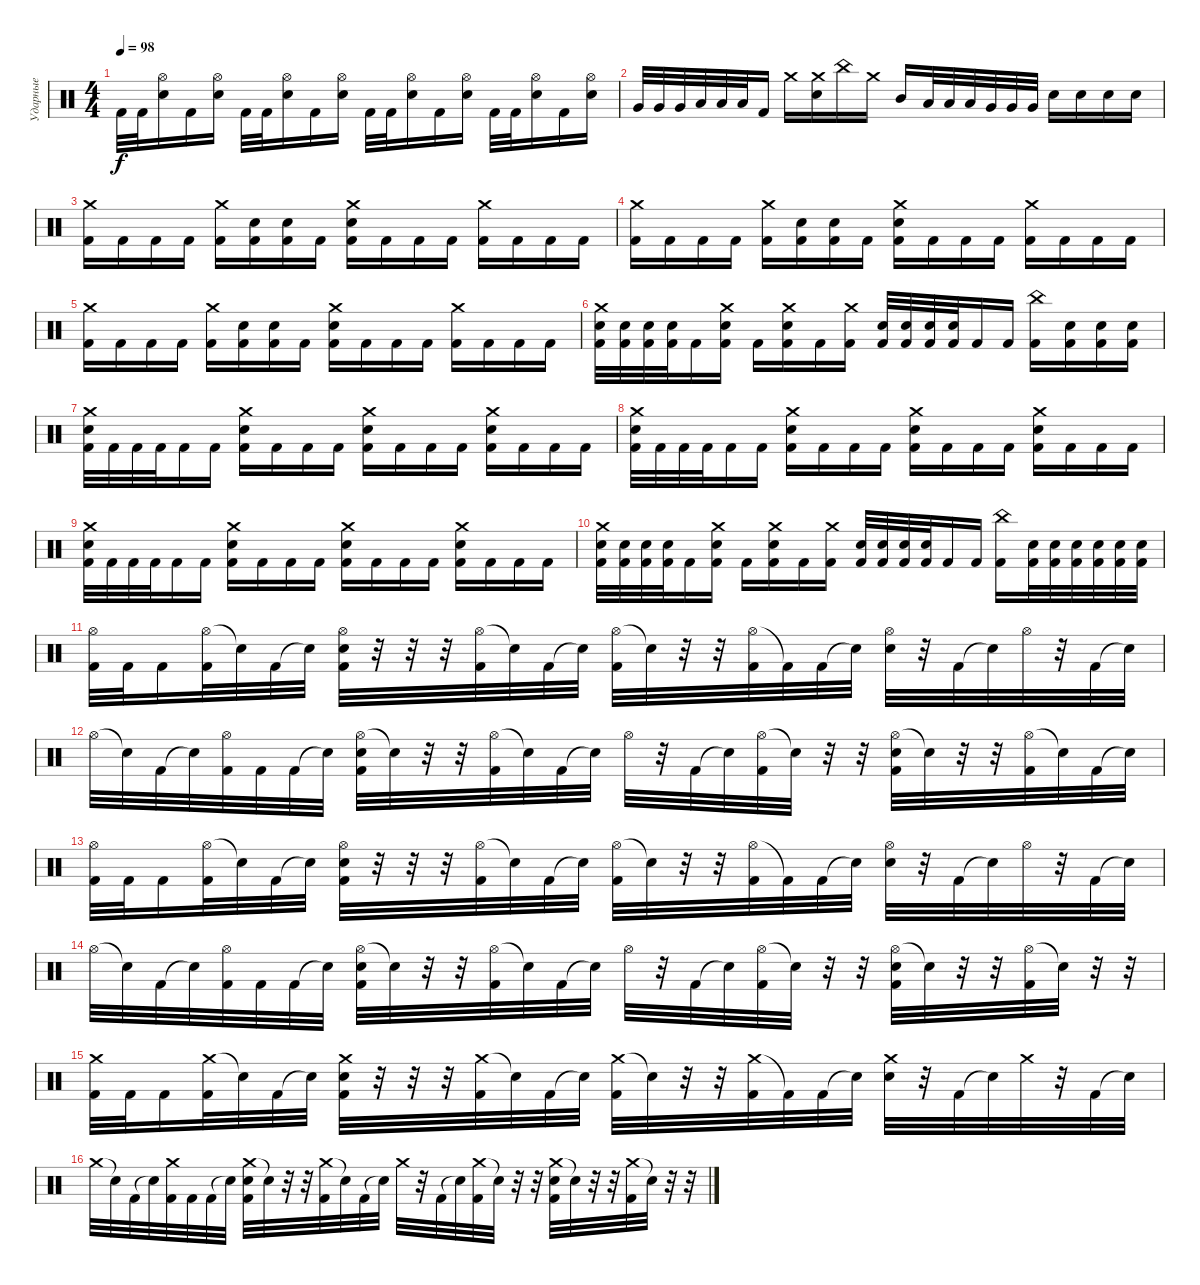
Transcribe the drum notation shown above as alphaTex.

\track ("Ударные" "Ударные") {instrument percussion}
\staff {score}
\articulation defaults
\ts (4 4)
\tempo 98
\clef neutral
\ks c "Kick (hit) 2".32{dy f} "Kick (hit) 2".32
("Hi-Hat (open)" "Electric Snare (hit)").16 "Kick (hit) 2".16 ("Hi-Hat (open)" "Electric Snare (hit)").16 "Kick (hit) 2".32 "Kick (hit) 2".32 ("Hi-Hat (open)" "Electric Snare (hit)").16 "Kick (hit) 2".16 ("Hi-Hat (open)" "Electric Snare (hit)").16 "Kick (hit) 2".32 "Kick (hit) 2".32 ("Hi-Hat (open)" "Electric Snare (hit)").16 "Kick (hit) 2".16 ("Hi-Hat (open)" "Electric Snare (hit)").16 "Kick (hit) 2".32 "Kick (hit) 2".32 ("Hi-Hat (open)" "Electric Snare (hit)").16 "Kick (hit) 2".16 ("Hi-Hat (open)" "Electric Snare (hit)").16 |
"Very Low Tom (hit)".32 "Very Low Tom (hit)".32 "Very Low Tom (hit)".32 "Low Tom (hit)".32 "Low Tom (hit)".32 "Low Tom (hit)".32 "Kick (hit) 2".16 "Crash medium (hit)".16 ("Crash medium (hit)" "Electric Snare (hit)").16 "China (hit)".16 "Crash medium (hit)".16 "Mid Tom (hit)".16 "Low Tom (hit)".32 "Low Tom (hit)".32 "Low Tom (hit)".32 "Very Low Tom (hit)".32 "Very Low Tom (hit)".32 "Very Low Tom (hit)".32 "Electric Snare (hit)".16 "Electric Snare (hit)".16 "Electric Snare (hit)".16 "Electric Snare (hit)".16 |
("Crash medium (hit)" "Kick (hit) 2").16 "Kick (hit) 2".16 "Kick (hit) 2".16 "Kick (hit) 2".16 ("Crash medium (hit)" "Kick (hit) 2").16 ("Electric Snare (hit)" "Kick (hit) 2").16 ("Electric Snare (hit)" "Kick (hit) 2").16 "Kick (hit) 2".16 ("Crash medium (hit)" "Electric Snare (hit)" "Kick (hit) 2").16 "Kick (hit) 2".16 "Kick (hit) 2".16 "Kick (hit) 2".16 ("Crash medium (hit)" "Kick (hit) 2").16 "Kick (hit) 2".16 "Kick (hit) 2".16 "Kick (hit) 2".16 |
("Crash medium (hit)" "Kick (hit) 2").16 "Kick (hit) 2".16 "Kick (hit) 2".16 "Kick (hit) 2".16 ("Crash medium (hit)" "Kick (hit) 2").16 ("Electric Snare (hit)" "Kick (hit) 2").16 ("Electric Snare (hit)" "Kick (hit) 2").16 "Kick (hit) 2".16 ("Crash medium (hit)" "Electric Snare (hit)" "Kick (hit) 2").16 "Kick (hit) 2".16 "Kick (hit) 2".16 "Kick (hit) 2".16 ("Crash medium (hit)" "Kick (hit) 2").16 "Kick (hit) 2".16 "Kick (hit) 2".16 "Kick (hit) 2".16 |
("Crash medium (hit)" "Kick (hit) 2").16 "Kick (hit) 2".16 "Kick (hit) 2".16 "Kick (hit) 2".16 ("Crash medium (hit)" "Kick (hit) 2").16 ("Electric Snare (hit)" "Kick (hit) 2").16 ("Electric Snare (hit)" "Kick (hit) 2").16 "Kick (hit) 2".16 ("Crash medium (hit)" "Electric Snare (hit)" "Kick (hit) 2").16 "Kick (hit) 2".16 "Kick (hit) 2".16 "Kick (hit) 2".16 ("Crash medium (hit)" "Kick (hit) 2").16 "Kick (hit) 2".16 "Kick (hit) 2".16 "Kick (hit) 2".16 |
("Crash medium (hit)" "Electric Snare (hit)" "Kick (hit) 2").32 ("Electric Snare (hit)" "Kick (hit) 2").32 ("Electric Snare (hit)" "Kick (hit) 2").32 ("Electric Snare (hit)" "Kick (hit) 2").32 "Kick (hit) 2".16 ("Crash medium (hit)" "Electric Snare (hit)" "Kick (hit) 2").16 "Kick (hit) 2".16 ("Crash medium (hit)" "Electric Snare (hit)" "Kick (hit) 2").16 "Kick (hit) 2".16 ("Crash medium (hit)" "Kick (hit) 2").16 ("Electric Snare (hit)" "Kick (hit) 2").32 ("Electric Snare (hit)" "Kick (hit) 2").32 ("Electric Snare (hit)" "Kick (hit) 2").32 ("Electric Snare (hit)" "Kick (hit) 2").32 "Kick (hit) 2".16 "Kick (hit) 2".16 ("China (hit)" "Kick (hit) 2").16 ("Electric Snare (hit)" "Kick (hit) 2").16 ("Electric Snare (hit)" "Kick (hit) 2").16 ("Electric Snare (hit)" "Kick (hit) 2").16 |
("Crash medium (hit)" "Electric Snare (hit)" "Kick (hit) 2").32 "Kick (hit) 2".32 "Kick (hit) 2".32 "Kick (hit) 2".32 "Kick (hit) 2".16 "Kick (hit) 2".16 ("Crash medium (hit)" "Electric Snare (hit)" "Kick (hit) 2").16 "Kick (hit) 2".16 "Kick (hit) 2".16 "Kick (hit) 2".16 ("Crash medium (hit)" "Electric Snare (hit)" "Kick (hit) 2").16 "Kick (hit) 2".16 "Kick (hit) 2".16 "Kick (hit) 2".16 ("Crash medium (hit)" "Electric Snare (hit)" "Kick (hit) 2").16 "Kick (hit) 2".16 "Kick (hit) 2".16 "Kick (hit) 2".16 |
("Crash medium (hit)" "Electric Snare (hit)" "Kick (hit) 2").32 "Kick (hit) 2".32 "Kick (hit) 2".32 "Kick (hit) 2".32 "Kick (hit) 2".16 "Kick (hit) 2".16 ("Crash medium (hit)" "Electric Snare (hit)" "Kick (hit) 2").16 "Kick (hit) 2".16 "Kick (hit) 2".16 "Kick (hit) 2".16 ("Crash medium (hit)" "Electric Snare (hit)" "Kick (hit) 2").16 "Kick (hit) 2".16 "Kick (hit) 2".16 "Kick (hit) 2".16 ("Crash medium (hit)" "Electric Snare (hit)" "Kick (hit) 2").16 "Kick (hit) 2".16 "Kick (hit) 2".16 "Kick (hit) 2".16 |
("Crash medium (hit)" "Electric Snare (hit)" "Kick (hit) 2").32 "Kick (hit) 2".32 "Kick (hit) 2".32 "Kick (hit) 2".32 "Kick (hit) 2".16 "Kick (hit) 2".16 ("Crash medium (hit)" "Electric Snare (hit)" "Kick (hit) 2").16 "Kick (hit) 2".16 "Kick (hit) 2".16 "Kick (hit) 2".16 ("Crash medium (hit)" "Electric Snare (hit)" "Kick (hit) 2").16 "Kick (hit) 2".16 "Kick (hit) 2".16 "Kick (hit) 2".16 ("Crash medium (hit)" "Electric Snare (hit)" "Kick (hit) 2").16 "Kick (hit) 2".16 "Kick (hit) 2".16 "Kick (hit) 2".16 |
("Crash medium (hit)" "Electric Snare (hit)" "Kick (hit) 2").32 ("Electric Snare (hit)" "Kick (hit) 2").32 ("Electric Snare (hit)" "Kick (hit) 2").32 ("Electric Snare (hit)" "Kick (hit) 2").32 "Kick (hit) 2".16 ("Crash medium (hit)" "Electric Snare (hit)" "Kick (hit) 2").16 "Kick (hit) 2".16 ("Crash medium (hit)" "Electric Snare (hit)" "Kick (hit) 2").16 "Kick (hit) 2".16 ("Crash medium (hit)" "Kick (hit) 2").16 ("Electric Snare (hit)" "Kick (hit) 2").32 ("Electric Snare (hit)" "Kick (hit) 2").32 ("Electric Snare (hit)" "Kick (hit) 2").32 ("Electric Snare (hit)" "Kick (hit) 2").32 "Kick (hit) 2".16 "Kick (hit) 2".16 ("China (hit)" "Kick (hit) 2").16 ("Electric Snare (hit)" "Kick (hit) 2").32 ("Electric Snare (hit)" "Kick (hit) 2").32 ("Electric Snare (hit)" "Kick (hit) 2").32 ("Electric Snare (hit)" "Kick (hit) 2").32 ("Electric Snare (hit)" "Kick (hit) 2").32 ("Electric Snare (hit)" "Kick (hit) 2").32 |
("Hi-Hat (open)" "Kick (hit) 2").32 "Kick (hit) 2".32 "Kick (hit) 2".16 ("Hi-Hat (open)" "Kick (hit) 2").32 "Snare (hit)"{t}.32 "Kick (hit) 2".32 "Snare (hit)"{t}.32 ("Hi-Hat (open)" "Electric Snare (hit)" "Kick (hit) 2").32 r.32 r.32 r.32 ("Hi-Hat (open)" "Kick (hit) 2").32 "Snare (hit)"{t}.32 "Kick (hit) 2".32 "Snare (hit)"{t}.32 ("Hi-Hat (open)" "Kick (hit) 2").32 "Snare (hit)"{t}.32 r.32 r.32 ("Hi-Hat (open)" "Kick (hit) 2").32 "Kick (hit) 2"{t}.32 "Kick (hit) 2".32 "Snare (hit)"{t}.32 ("Hi-Hat (open)" "Electric Snare (hit)").32 r.32 "Kick (hit) 2".32 "Snare (hit)"{t}.32 "Hi-Hat (open)".32 r.32 "Kick (hit) 2".32 "Snare (hit)"{t}.32 |
"Hi-Hat (open)".32 "Snare (hit)"{t}.32 "Kick (hit) 2".32 "Snare (hit)"{t}.32 ("Hi-Hat (open)" "Kick (hit) 2").32 "Kick (hit) 2".32 "Kick (hit) 2".32 "Snare (hit)"{t}.32 ("Hi-Hat (open)" "Electric Snare (hit)" "Kick (hit) 2").32 "Snare (hit)"{t}.32 r.32 r.32 ("Hi-Hat (open)" "Kick (hit) 2").32 "Snare (hit)"{t}.32 "Kick (hit) 2".32 "Snare (hit)"{t}.32 "Hi-Hat (open)".32 r.32 "Kick (hit) 2".32 "Snare (hit)"{t}.32 ("Hi-Hat (open)" "Kick (hit) 2").32 "Snare (hit)"{t}.32 r.32 r.32 ("Hi-Hat (open)" "Electric Snare (hit)" "Kick (hit) 2").32 "Snare (hit)"{t}.32 r.32 r.32 ("Hi-Hat (open)" "Kick (hit) 2").32 "Snare (hit)"{t}.32 "Kick (hit) 2".32 "Snare (hit)"{t}.32 |
("Hi-Hat (open)" "Kick (hit) 2").32 "Kick (hit) 2".32 "Kick (hit) 2".16 ("Hi-Hat (open)" "Kick (hit) 2").32 "Snare (hit)"{t}.32 "Kick (hit) 2".32 "Snare (hit)"{t}.32 ("Hi-Hat (open)" "Electric Snare (hit)" "Kick (hit) 2").32 r.32 r.32 r.32 ("Hi-Hat (open)" "Kick (hit) 2").32 "Snare (hit)"{t}.32 "Kick (hit) 2".32 "Snare (hit)"{t}.32 ("Hi-Hat (open)" "Kick (hit) 2").32 "Snare (hit)"{t}.32 r.32 r.32 ("Hi-Hat (open)" "Kick (hit) 2").32 "Kick (hit) 2"{t}.32 "Kick (hit) 2".32 "Snare (hit)"{t}.32 ("Hi-Hat (open)" "Electric Snare (hit)").32 r.32 "Kick (hit) 2".32 "Snare (hit)"{t}.32 "Hi-Hat (open)".32 r.32 "Kick (hit) 2".32 "Snare (hit)"{t}.32 |
"Hi-Hat (open)".32 "Snare (hit)"{t}.32 "Kick (hit) 2".32 "Snare (hit)"{t}.32 ("Hi-Hat (open)" "Kick (hit) 2").32 "Kick (hit) 2".32 "Kick (hit) 2".32 "Snare (hit)"{t}.32 ("Hi-Hat (open)" "Electric Snare (hit)" "Kick (hit) 2").32 "Snare (hit)"{t}.32 r.32 r.32 ("Hi-Hat (open)" "Kick (hit) 2").32 "Snare (hit)"{t}.32 "Kick (hit) 2".32 "Snare (hit)"{t}.32 "Hi-Hat (open)".32 r.32 "Kick (hit) 2".32 "Snare (hit)"{t}.32 ("Hi-Hat (open)" "Kick (hit) 2").32 "Snare (hit)"{t}.32 r.32 r.32 ("Hi-Hat (open)" "Electric Snare (hit)" "Kick (hit) 2").32 "Snare (hit)"{t}.32 r.32 r.32 ("Hi-Hat (open)" "Kick (hit) 2").32 "Snare (hit)"{t}.32 r.32 r.32 |
("Crash medium (hit)" "Kick (hit) 2").32 "Kick (hit) 2".32 "Kick (hit) 2".16 ("Crash medium (hit)" "Kick (hit) 2").32 "Snare (hit)"{t}.32 "Kick (hit) 2".32 "Snare (hit)"{t}.32 ("Crash medium (hit)" "Electric Snare (hit)" "Kick (hit) 2").32 r.32 r.32 r.32 ("Crash medium (hit)" "Kick (hit) 2").32 "Snare (hit)"{t}.32 "Kick (hit) 2".32 "Snare (hit)"{t}.32 ("Crash medium (hit)" "Kick (hit) 2").32 "Snare (hit)"{t}.32 r.32 r.32 ("Crash medium (hit)" "Kick (hit) 2").32 "Kick (hit) 2"{t}.32 "Kick (hit) 2".32 "Snare (hit)"{t}.32 ("Crash medium (hit)" "Electric Snare (hit)").32 r.32 "Kick (hit) 2".32 "Snare (hit)"{t}.32 "Crash medium (hit)".32 r.32 "Kick (hit) 2".32 "Snare (hit)"{t}.32 |
"Crash medium (hit)".32 "Snare (hit)"{t}.32 "Kick (hit) 2".32 "Snare (hit)"{t}.32 ("Crash medium (hit)" "Kick (hit) 2").32 "Kick (hit) 2".32 "Kick (hit) 2".32 "Snare (hit)"{t}.32 ("Crash medium (hit)" "Electric Snare (hit)" "Kick (hit) 2").32 "Snare (hit)"{t}.32 r.32 r.32 ("Crash medium (hit)" "Kick (hit) 2").32 "Snare (hit)"{t}.32 "Kick (hit) 2".32 "Snare (hit)"{t}.32 "Crash medium (hit)".32 r.32 "Kick (hit) 2".32 "Snare (hit)"{t}.32 ("Crash medium (hit)" "Kick (hit) 2").32 "Snare (hit)"{t}.32 r.32 r.32 ("Crash medium (hit)" "Electric Snare (hit)" "Kick (hit) 2").32 "Snare (hit)"{t}.32 r.32 r.32 ("Crash medium (hit)" "Kick (hit) 2").32 "Snare (hit)"{t}.32 r.32 r.32
